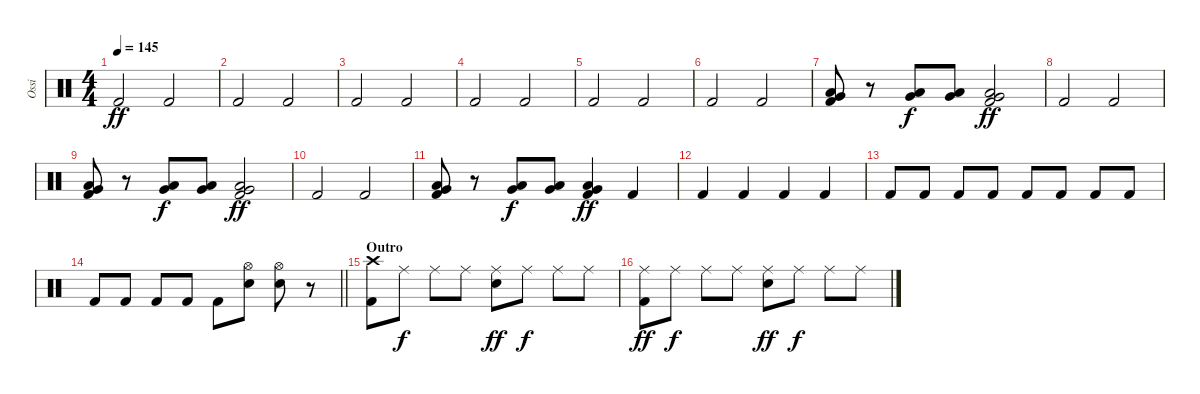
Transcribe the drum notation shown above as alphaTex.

\track ("Ossi" "Ossi") {instrument percussion}
\staff {score}
\articulation defaults
\ts (4 4)
\tempo 145
\clef neutral
\ks c "Kick (hit) 2".2{dy ff} "Kick (hit) 2".2
|
"Kick (hit) 2".2 "Kick (hit) 2".2 |
"Kick (hit) 2".2 "Kick (hit) 2".2 |
"Kick (hit) 2".2 "Kick (hit) 2".2 |
"Kick (hit) 2".2 "Kick (hit) 2".2 |
"Kick (hit) 2".2 "Kick (hit) 2".2 |
("Low Tom (hit)" "Very Low Tom (hit)" "Kick (hit) 2").8 r.8 ("Low Tom (hit)" "Very Low Tom (hit)").8{dy f} ("Low Tom (hit)" "Very Low Tom (hit)").8 ("Low Tom (hit)" "Very Low Tom (hit)" "Kick (hit) 2").2{dy ff} |
"Kick (hit) 2".2 "Kick (hit) 2".2 |
("Low Tom (hit)" "Very Low Tom (hit)" "Kick (hit) 2").8 r.8 ("Low Tom (hit)" "Very Low Tom (hit)").8{dy f} ("Low Tom (hit)" "Very Low Tom (hit)").8 ("Low Tom (hit)" "Very Low Tom (hit)" "Kick (hit) 2").2{dy ff} |
"Kick (hit) 2".2 "Kick (hit) 2".2 |
("Low Tom (hit)" "Very Low Tom (hit)" "Kick (hit) 2").8 r.8 ("Low Tom (hit)" "Very Low Tom (hit)").8{dy f} ("Low Tom (hit)" "Very Low Tom (hit)").8 ("Low Tom (hit)" "Very Low Tom (hit)" "Kick (hit) 2").4{dy ff} "Kick (hit) 2".4 |
"Kick (hit) 2".4 "Kick (hit) 2".4 "Kick (hit) 2".4 "Kick (hit) 2".4 |
"Kick (hit) 2".8 "Kick (hit) 2".8 "Kick (hit) 2".8 "Kick (hit) 2".8 "Kick (hit) 2".8 "Kick (hit) 2".8 "Kick (hit) 2".8 "Kick (hit) 2".8 |
\barLineRight lightlight "Kick (hit) 2".8 "Kick (hit) 2".8 "Kick (hit) 2".8 "Kick (hit) 2".8 "Kick (hit) 2".8
("Hi-Hat (open)" "Electric Snare (hit)").8 ("Hi-Hat (open)" "Electric Snare (hit)").8 r.8 |
\section ("" "Outro")
("Crash high (hit)" "Kick (hit) 2").8 "Ride (middle)".8{dy f} "Ride (middle)".8 "Ride (middle)".8 ("Ride (middle)" "Electric Snare (hit)").8{dy ff} "Ride (middle)".8{dy f} "Ride (middle)".8 "Ride (middle)".8 |
("Ride (middle)" "Kick (hit) 2").8{dy ff} "Ride (middle)".8{dy f} "Ride (middle)".8 "Ride (middle)".8 ("Ride (middle)" "Electric Snare (hit)").8{dy ff} "Ride (middle)".8{dy f} "Ride (middle)".8 "Ride (middle)".8
